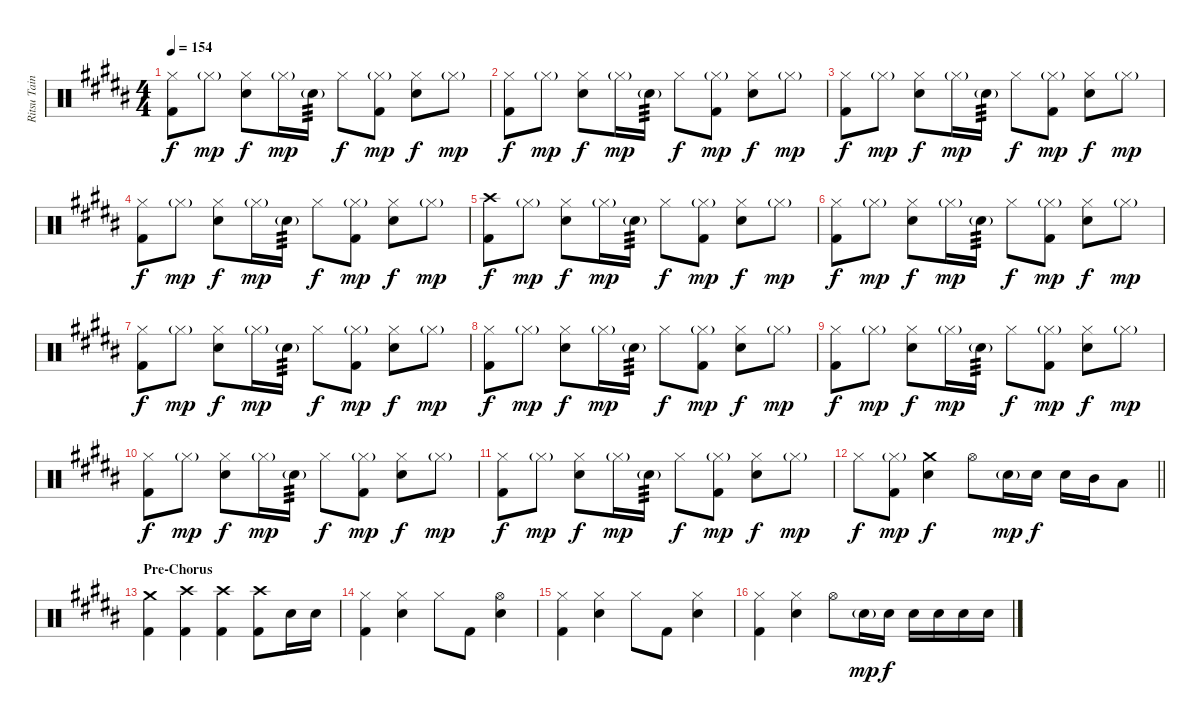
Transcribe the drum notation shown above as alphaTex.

\track ("Ritsu Tainaka" "Ritsu Tain") {instrument percussion}
\staff {score}
\articulation defaults
\ts (4 4)
\tempo 154
\clef neutral
\ks b
("Hi-Hat (closed)" "Kick (hit) 2").8{dy f} "Hi-Hat (closed)"{g}.8{dy mp} ("Hi-Hat (closed)" "Snare (hit) 2").8{dy f} "Hi-Hat (closed)"{g}.16{dy mp} "Snare (hit) 2"{g}.16{tp 3} "Hi-Hat (closed)".8{dy f} ("Hi-Hat (closed)"{g} "Kick (hit) 2").8{dy mp} ("Hi-Hat (closed)" "Snare (hit) 2").8{dy f} "Hi-Hat (closed)"{g}.8{dy mp} |
("Hi-Hat (closed)" "Kick (hit) 2").8{dy f} "Hi-Hat (closed)"{g}.8{dy mp} ("Hi-Hat (closed)" "Snare (hit) 2").8{dy f} "Hi-Hat (closed)"{g}.16{dy mp} "Snare (hit) 2"{g}.16{tp 3} "Hi-Hat (closed)".8{dy f} ("Hi-Hat (closed)"{g} "Kick (hit) 2").8{dy mp} ("Hi-Hat (closed)" "Snare (hit) 2").8{dy f} "Hi-Hat (closed)"{g}.8{dy mp} |
("Hi-Hat (closed)" "Kick (hit) 2").8{dy f} "Hi-Hat (closed)"{g}.8{dy mp} ("Hi-Hat (closed)" "Snare (hit) 2").8{dy f} "Hi-Hat (closed)"{g}.16{dy mp} "Snare (hit) 2"{g}.16{tp 3} "Hi-Hat (closed)".8{dy f} ("Hi-Hat (closed)"{g} "Kick (hit) 2").8{dy mp} ("Hi-Hat (closed)" "Snare (hit) 2").8{dy f} "Hi-Hat (closed)"{g}.8{dy mp} |
("Hi-Hat (closed)" "Kick (hit) 2").8{dy f} "Hi-Hat (closed)"{g}.8{dy mp} ("Hi-Hat (closed)" "Snare (hit) 2").8{dy f} "Hi-Hat (closed)"{g}.16{dy mp} "Snare (hit) 2"{g}.16{tp 3} "Hi-Hat (closed)".8{dy f} ("Hi-Hat (closed)"{g} "Kick (hit) 2").8{dy mp} ("Hi-Hat (closed)" "Snare (hit) 2").8{dy f} "Hi-Hat (closed)"{g}.8{dy mp} |
("Crash high (hit)" "Kick (hit) 2").8{dy f} "Hi-Hat (closed)"{g}.8{dy mp} ("Hi-Hat (closed)" "Snare (hit) 2").8{dy f} "Hi-Hat (closed)"{g}.16{dy mp} "Snare (hit) 2"{g}.16{tp 3} "Hi-Hat (closed)".8{dy f} ("Hi-Hat (closed)"{g} "Kick (hit) 2").8{dy mp} ("Hi-Hat (closed)" "Snare (hit) 2").8{dy f} "Hi-Hat (closed)"{g}.8{dy mp} |
("Hi-Hat (closed)" "Kick (hit) 2").8{dy f} "Hi-Hat (closed)"{g}.8{dy mp} ("Hi-Hat (closed)" "Snare (hit) 2").8{dy f} "Hi-Hat (closed)"{g}.16{dy mp} "Snare (hit) 2"{g}.16{tp 3} "Hi-Hat (closed)".8{dy f} ("Hi-Hat (closed)"{g} "Kick (hit) 2").8{dy mp} ("Hi-Hat (closed)" "Snare (hit) 2").8{dy f} "Hi-Hat (closed)"{g}.8{dy mp} |
("Hi-Hat (closed)" "Kick (hit) 2").8{dy f} "Hi-Hat (closed)"{g}.8{dy mp} ("Hi-Hat (closed)" "Snare (hit) 2").8{dy f} "Hi-Hat (closed)"{g}.16{dy mp} "Snare (hit) 2"{g}.16{tp 3} "Hi-Hat (closed)".8{dy f} ("Hi-Hat (closed)"{g} "Kick (hit) 2").8{dy mp} ("Hi-Hat (closed)" "Snare (hit) 2").8{dy f} "Hi-Hat (closed)"{g}.8{dy mp} |
("Hi-Hat (closed)" "Kick (hit) 2").8{dy f} "Hi-Hat (closed)"{g}.8{dy mp} ("Hi-Hat (closed)" "Snare (hit) 2").8{dy f} "Hi-Hat (closed)"{g}.16{dy mp} "Snare (hit) 2"{g}.16{tp 3} "Hi-Hat (closed)".8{dy f} ("Hi-Hat (closed)"{g} "Kick (hit) 2").8{dy mp} ("Hi-Hat (closed)" "Snare (hit) 2").8{dy f} "Hi-Hat (closed)"{g}.8{dy mp} |
("Hi-Hat (closed)" "Kick (hit) 2").8{dy f} "Hi-Hat (closed)"{g}.8{dy mp} ("Hi-Hat (closed)" "Snare (hit) 2").8{dy f} "Hi-Hat (closed)"{g}.16{dy mp} "Snare (hit) 2"{g}.16{tp 3} "Hi-Hat (closed)".8{dy f} ("Hi-Hat (closed)"{g} "Kick (hit) 2").8{dy mp} ("Hi-Hat (closed)" "Snare (hit) 2").8{dy f} "Hi-Hat (closed)"{g}.8{dy mp} |
("Hi-Hat (closed)" "Kick (hit) 2").8{dy f} "Hi-Hat (closed)"{g}.8{dy mp} ("Hi-Hat (closed)" "Snare (hit) 2").8{dy f} "Hi-Hat (closed)"{g}.16{dy mp} "Snare (hit) 2"{g}.16{tp 3} "Hi-Hat (closed)".8{dy f} ("Hi-Hat (closed)"{g} "Kick (hit) 2").8{dy mp} ("Hi-Hat (closed)" "Snare (hit) 2").8{dy f} "Hi-Hat (closed)"{g}.8{dy mp} |
("Hi-Hat (closed)" "Kick (hit) 2").8{dy f} "Hi-Hat (closed)"{g}.8{dy mp} ("Hi-Hat (closed)" "Snare (hit) 2").8{dy f} "Hi-Hat (closed)"{g}.16{dy mp} "Snare (hit) 2"{g}.16{tp 3} "Hi-Hat (closed)".8{dy f} ("Hi-Hat (closed)"{g} "Kick (hit) 2").8{dy mp} ("Hi-Hat (closed)" "Snare (hit) 2").8{dy f} "Hi-Hat (closed)"{g}.8{dy mp} |
\barLineRight lightlight "Hi-Hat (closed)".8{dy f}
("Hi-Hat (closed)"{g} "Kick (hit) 2").8{dy mp} ("Crash medium (hit)" "Snare (hit) 2").4{dy f} "Hi-Hat (open)".8 "Snare (hit) 2"{g}.16{dy mp} "Snare (hit) 2".16{dy f} "Snare (hit) 2".16 "Mid Tom (hit)".16 "Low Tom (hit)".8 |
\section ("" "Pre-Chorus")
("Crash medium (hit)" "Kick (hit) 2").4 ("Crash high (hit)" "Kick (hit) 2").4 ("Crash high (hit)" "Kick (hit) 2").4 ("Crash high (hit)" "Kick (hit) 2").8 "Snare (hit) 2".16 "Snare (hit) 2".16 |
("Hi-Hat (closed)" "Kick (hit) 2").4 ("Hi-Hat (closed)" "Snare (hit) 2").4 "Hi-Hat (closed)".8 "Kick (hit) 2".8 ("Hi-Hat (open)" "Snare (hit) 2").4 |
("Hi-Hat (closed)" "Kick (hit) 2").4 ("Hi-Hat (closed)" "Snare (hit) 2").4 "Hi-Hat (closed)".8 "Kick (hit) 2".8 ("Hi-Hat (closed)" "Snare (hit) 2").4 |
("Hi-Hat (closed)" "Kick (hit) 2").4 ("Hi-Hat (closed)" "Snare (hit) 2").4 "Hi-Hat (open)".8 "Snare (hit) 2"{g}.16{dy mp} "Snare (hit) 2".16{dy f} "Snare (hit) 2".16 "Snare (hit) 2".16 "Snare (hit) 2".16 "Snare (hit) 2".16
